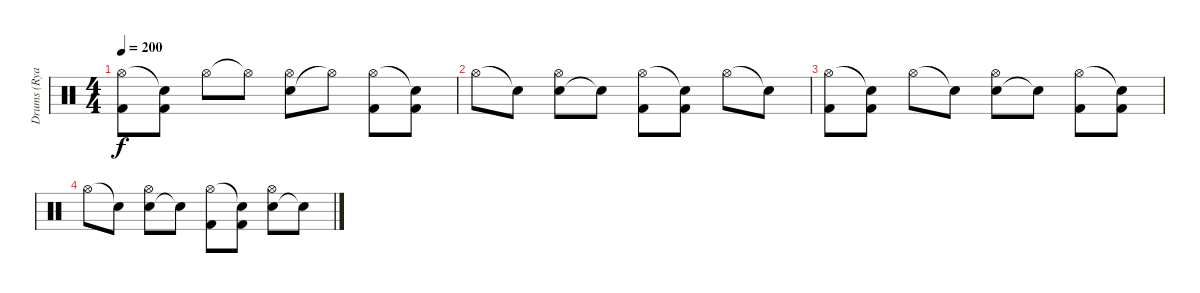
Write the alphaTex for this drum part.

\track ("Drums (Ryan Carroll)" "Drums (Rya") {instrument percussion}
\staff {score}
\articulation defaults
\ts (4 4)
\tempo 200
\clef neutral
\ks c
("Kick (hit) 2" "Hi-Hat (open)").8{dy f} ("Kick (hit) 2" "Snare (hit)"{t}).8 "Hi-Hat (open)".8 "Hi-Hat (open)"{t}.8 ("Snare (hit) 2" "Hi-Hat (open)").8 "Hi-Hat (open)"{t}.8 ("Kick (hit) 2" "Hi-Hat (open)").8 ("Kick (hit) 2" "Snare (hit)"{t}).8 |
"Hi-Hat (open)".8 "Snare (hit)"{t}.8 ("Snare (hit) 2" "Hi-Hat (open)").8 "Snare (hit)"{t}.8 ("Kick (hit) 2" "Hi-Hat (open)").8 ("Kick (hit) 2" "Snare (hit)"{t}).8 "Hi-Hat (open)".8 "Snare (hit)"{t}.8 |
("Kick (hit) 2" "Hi-Hat (open)").8 ("Kick (hit) 2" "Snare (hit)"{t}).8 "Hi-Hat (open)".8 "Snare (hit)"{t}.8 ("Snare (hit) 2" "Hi-Hat (open)").8 "Snare (hit)"{t}.8 ("Kick (hit) 2" "Hi-Hat (open)").8 ("Kick (hit) 2" "Snare (hit)"{t}).8 |
"Hi-Hat (open)".8 "Snare (hit)"{t}.8 ("Snare (hit) 2" "Hi-Hat (open)").8 "Snare (hit)"{t}.8 ("Kick (hit) 2" "Hi-Hat (open)").8 ("Kick (hit) 2" "Snare (hit)"{t}).8 ("Snare (hit) 2" "Hi-Hat (open)").8 "Snare (hit)"{t}.8
